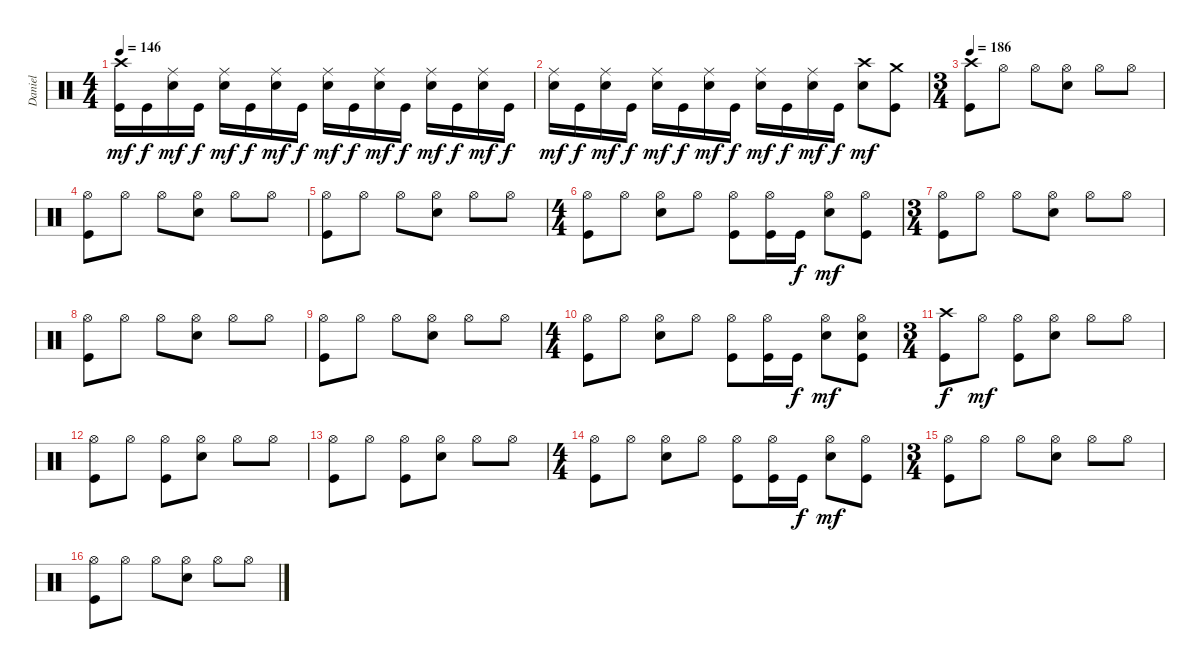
\track ("Daniel" "Daniel") {instrument percussion}
\staff {score}
\articulation defaults
\ts (4 4)
\tempo 146
\clef neutral
\ks c
("Kick (hit)" "Crash high (hit)").16{dy mf} "Kick (hit)".16{dy f} ("Electric Snare (hit)" "Ride (middle)").16{dy mf} "Kick (hit)".16{dy f} ("Electric Snare (hit)" "Ride (middle)").16{dy mf} "Kick (hit)".16{dy f} ("Electric Snare (hit)" "Ride (middle)").16{dy mf} "Kick (hit)".16{dy f} ("Electric Snare (hit)" "Ride (middle)").16{dy mf} "Kick (hit)".16{dy f} ("Electric Snare (hit)" "Ride (middle)").16{dy mf} "Kick (hit)".16{dy f} ("Electric Snare (hit)" "Ride (middle)").16{dy mf} "Kick (hit)".16{dy f} ("Electric Snare (hit)" "Ride (middle)").16{dy mf} "Kick (hit)".16{dy f} |
("Electric Snare (hit)" "Ride (middle)").16{dy mf} "Kick (hit)".16{dy f} ("Electric Snare (hit)" "Ride (middle)").16{dy mf} "Kick (hit)".16{dy f} ("Electric Snare (hit)" "Ride (middle)").16{dy mf} "Kick (hit)".16{dy f} ("Electric Snare (hit)" "Ride (middle)").16{dy mf} "Kick (hit)".16{dy f} ("Electric Snare (hit)" "Ride (middle)").16{dy mf} "Kick (hit)".16{dy f} ("Electric Snare (hit)" "Ride (middle)").16{dy mf} "Kick (hit)".16{dy f} ("Electric Snare (hit)" "Crash high (hit)").8{dy mf} ("Kick (hit)" "Crash medium (hit)").8 |
\ts (3 4)
\tempo 186
("Kick (hit)" "Crash high (hit)").8 "Hi-Hat (open)".8 "Hi-Hat (open)".8 ("Electric Snare (hit)" "Hi-Hat (open)").8 "Hi-Hat (open)".8 "Hi-Hat (open)".8 |
("Kick (hit)" "Hi-Hat (open)").8 "Hi-Hat (open)".8 "Hi-Hat (open)".8 ("Electric Snare (hit)" "Hi-Hat (open)").8 "Hi-Hat (open)".8 "Hi-Hat (open)".8 |
("Kick (hit)" "Hi-Hat (open)").8 "Hi-Hat (open)".8 "Hi-Hat (open)".8 ("Electric Snare (hit)" "Hi-Hat (open)").8 "Hi-Hat (open)".8 "Hi-Hat (open)".8 |
\ts (4 4)
("Kick (hit)" "Hi-Hat (open)").8 "Hi-Hat (open)".8 ("Electric Snare (hit)" "Hi-Hat (open)").8 "Hi-Hat (open)".8 ("Kick (hit)" "Hi-Hat (open)").8 ("Kick (hit)" "Hi-Hat (open)").16 "Kick (hit)".16{dy f} ("Electric Snare (hit)" "Hi-Hat (open)").8{dy mf} ("Kick (hit)" "Hi-Hat (open)").8 |
\ts (3 4)
("Kick (hit)" "Hi-Hat (open)").8 "Hi-Hat (open)".8 "Hi-Hat (open)".8 ("Electric Snare (hit)" "Hi-Hat (open)").8 "Hi-Hat (open)".8 "Hi-Hat (open)".8 |
("Kick (hit)" "Hi-Hat (open)").8 "Hi-Hat (open)".8 "Hi-Hat (open)".8 ("Electric Snare (hit)" "Hi-Hat (open)").8 "Hi-Hat (open)".8 "Hi-Hat (open)".8 |
("Kick (hit)" "Hi-Hat (open)").8 "Hi-Hat (open)".8 "Hi-Hat (open)".8 ("Electric Snare (hit)" "Hi-Hat (open)").8 "Hi-Hat (open)".8 "Hi-Hat (open)".8 |
\ts (4 4)
("Kick (hit)" "Hi-Hat (open)").8 "Hi-Hat (open)".8 ("Electric Snare (hit)" "Hi-Hat (open)").8 "Hi-Hat (open)".8 ("Kick (hit)" "Hi-Hat (open)").8 ("Kick (hit)" "Hi-Hat (open)").16 "Kick (hit)".16{dy f} ("Electric Snare (hit)" "Hi-Hat (open)").8{dy mf} ("Kick (hit)" "Electric Snare (hit)" "Hi-Hat (open)").8 |
\ts (3 4)
("Kick (hit)" "Crash high (hit)").8{dy f} "Hi-Hat (open)".8{dy mf} ("Kick (hit)" "Hi-Hat (open)").8 ("Electric Snare (hit)" "Hi-Hat (open)").8 "Hi-Hat (open)".8 "Hi-Hat (open)".8 |
("Kick (hit)" "Hi-Hat (open)").8 "Hi-Hat (open)".8 ("Kick (hit)" "Hi-Hat (open)").8 ("Electric Snare (hit)" "Hi-Hat (open)").8 "Hi-Hat (open)".8 "Hi-Hat (open)".8 |
("Kick (hit)" "Hi-Hat (open)").8 "Hi-Hat (open)".8 ("Kick (hit)" "Hi-Hat (open)").8 ("Electric Snare (hit)" "Hi-Hat (open)").8 "Hi-Hat (open)".8 "Hi-Hat (open)".8 |
\ts (4 4)
("Kick (hit)" "Hi-Hat (open)").8 "Hi-Hat (open)".8 ("Electric Snare (hit)" "Hi-Hat (open)").8 "Hi-Hat (open)".8 ("Kick (hit)" "Hi-Hat (open)").8 ("Kick (hit)" "Hi-Hat (open)").16 "Kick (hit)".16{dy f} ("Electric Snare (hit)" "Hi-Hat (open)").8{dy mf} ("Kick (hit)" "Hi-Hat (open)").8 |
\ts (3 4)
("Kick (hit)" "Hi-Hat (open)").8 "Hi-Hat (open)".8 "Hi-Hat (open)".8 ("Electric Snare (hit)" "Hi-Hat (open)").8 "Hi-Hat (open)".8 "Hi-Hat (open)".8 |
("Kick (hit)" "Hi-Hat (open)").8 "Hi-Hat (open)".8 "Hi-Hat (open)".8 ("Electric Snare (hit)" "Hi-Hat (open)").8 "Hi-Hat (open)".8 "Hi-Hat (open)".8
